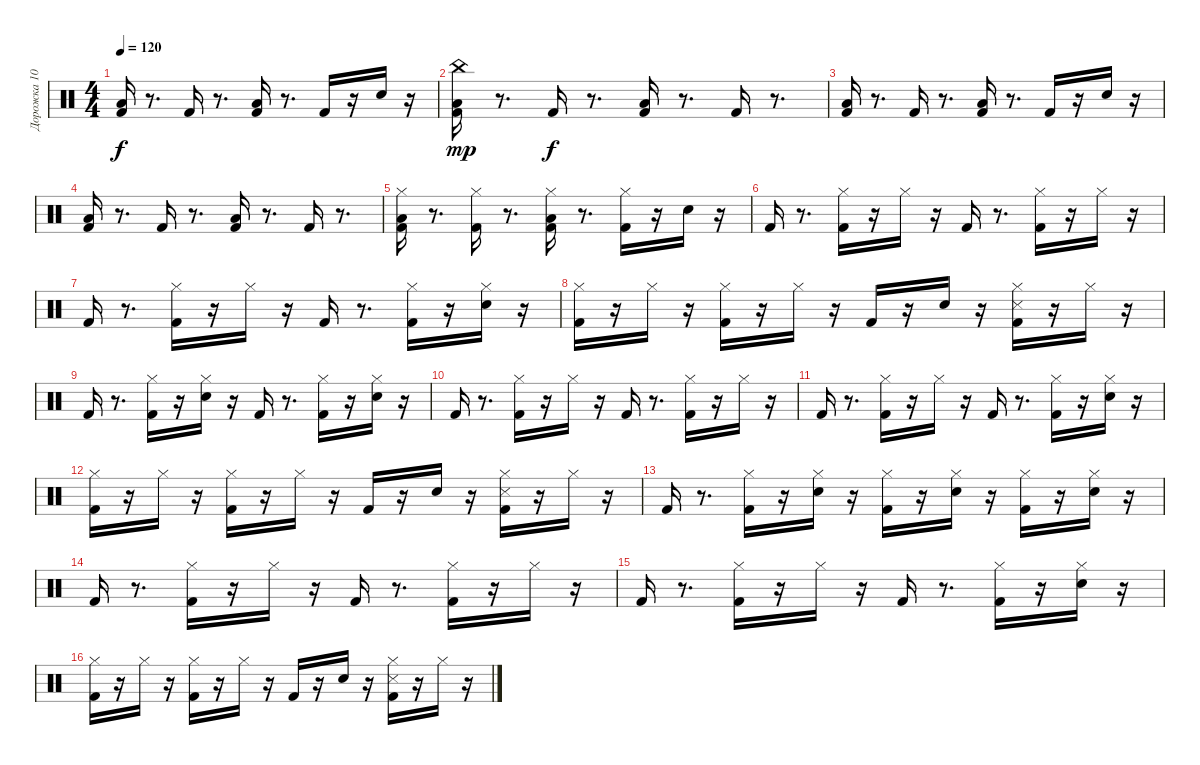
\track ("Дорожка 10" "Дорожка 10") {instrument percussion}
\staff {score}
\articulation defaults
\ts (4 4)
\tempo 120
\clef neutral
\ks c
("Kick (hit) 2" "Low Floor Tom (hit)").16{dy f} r.8{d} "Kick (hit) 2".16 r.8{d} ("Kick (hit) 2" "Low Floor Tom (hit)").16 r.8{d} "Kick (hit) 2".16 r.16 "Snare (hit) 2".16 r.16 |
("Kick (hit) 2" "Low Floor Tom (hit)" "China (hit)").16{dy mp} r.8{d} "Kick (hit) 2".16{dy f} r.8{d} ("Kick (hit) 2" "Low Floor Tom (hit)").16 r.8{d} "Kick (hit) 2".16 r.8{d} |
("Kick (hit) 2" "Low Floor Tom (hit)").16 r.8{d} "Kick (hit) 2".16 r.8{d} ("Kick (hit) 2" "Low Floor Tom (hit)").16 r.8{d} "Kick (hit) 2".16 r.16 "Snare (hit) 2".16 r.16 |
("Kick (hit) 2" "Low Floor Tom (hit)").16 r.8{d} "Kick (hit) 2".16 r.8{d} ("Kick (hit) 2" "Low Floor Tom (hit)").16 r.8{d} "Kick (hit) 2".16 r.8{d} |
("Kick (hit) 2" "Low Floor Tom (hit)" "Hi-Hat (closed)").16 r.8{d} ("Kick (hit) 2" "Hi-Hat (closed)").16 r.8{d} ("Kick (hit) 2" "Low Floor Tom (hit)" "Hi-Hat (closed)").16 r.8{d} ("Kick (hit) 2" "Hi-Hat (closed)").16 r.16 "Snare (hit) 2".16 r.16 |
"Kick (hit) 2".16 r.8{d} ("Kick (hit) 2" "Hi-Hat (closed)").16 r.16 "Hi-Hat (closed)".16 r.16 "Kick (hit) 2".16 r.8{d} ("Kick (hit) 2" "Hi-Hat (closed)").16 r.16 "Hi-Hat (closed)".16 r.16 |
"Kick (hit) 2".16 r.8{d} ("Kick (hit) 2" "Hi-Hat (closed)").16 r.16 "Hi-Hat (closed)".16 r.16 "Kick (hit) 2".16 r.8{d} ("Kick (hit) 2" "Hi-Hat (closed)").16 r.16 ("Snare (hit) 2" "Hi-Hat (closed)").16 r.16 |
("Kick (hit) 2" "Hi-Hat (closed)").16 r.16 "Hi-Hat (closed)".16 r.16 ("Kick (hit) 2" "Hi-Hat (closed)").16 r.16 "Hi-Hat (closed)".16 r.16 "Kick (hit) 2".16 r.16 "Hand Clap (hit)".16 r.16 ("Kick (hit) 2" "Snare (side stick) 3" "Hi-Hat (closed)").16 r.16 "Hi-Hat (closed)".16 r.16 |
"Kick (hit) 2".16 r.8{d} ("Kick (hit) 2" "Hi-Hat (closed)").16 r.16 ("Hand Clap (hit)" "Hi-Hat (closed)").16 r.16 "Kick (hit) 2".16 r.8{d} ("Kick (hit) 2" "Hi-Hat (closed)").16 r.16 ("Snare (hit) 2" "Hi-Hat (closed)").16 r.16 |
"Kick (hit) 2".16 r.8{d} ("Kick (hit) 2" "Hi-Hat (closed)").16 r.16 "Hi-Hat (closed)".16 r.16 "Kick (hit) 2".16 r.8{d} ("Kick (hit) 2" "Hi-Hat (closed)").16 r.16 "Hi-Hat (closed)".16 r.16 |
"Kick (hit) 2".16 r.8{d} ("Kick (hit) 2" "Hi-Hat (closed)").16 r.16 "Hi-Hat (closed)".16 r.16 "Kick (hit) 2".16 r.8{d} ("Kick (hit) 2" "Hi-Hat (closed)").16 r.16 ("Snare (hit) 2" "Hi-Hat (closed)").16 r.16 |
("Kick (hit) 2" "Hi-Hat (closed)").16 r.16 "Hi-Hat (closed)".16 r.16 ("Kick (hit) 2" "Hi-Hat (closed)").16 r.16 "Hi-Hat (closed)".16 r.16 "Kick (hit) 2".16 r.16 "Hand Clap (hit)".16 r.16 ("Kick (hit) 2" "Snare (side stick) 3" "Hi-Hat (closed)").16 r.16 "Hi-Hat (closed)".16 r.16 |
"Kick (hit) 2".16 r.8{d} ("Kick (hit) 2" "Hi-Hat (closed)").16 r.16 ("Hand Clap (hit)" "Hi-Hat (closed)").16 r.16 ("Kick (hit) 2" "Hi-Hat (closed)").16 r.16 ("Hand Clap (hit)" "Hi-Hat (closed)").16 r.16 ("Kick (hit) 2" "Hi-Hat (closed)").16 r.16 ("Snare (hit) 2" "Hi-Hat (closed)").16 r.16 |
"Kick (hit) 2".16 r.8{d} ("Kick (hit) 2" "Hi-Hat (closed)").16 r.16 "Hi-Hat (closed)".16 r.16 "Kick (hit) 2".16 r.8{d} ("Kick (hit) 2" "Hi-Hat (closed)").16 r.16 "Hi-Hat (closed)".16 r.16 |
"Kick (hit) 2".16 r.8{d} ("Kick (hit) 2" "Hi-Hat (closed)").16 r.16 "Hi-Hat (closed)".16 r.16 "Kick (hit) 2".16 r.8{d} ("Kick (hit) 2" "Hi-Hat (closed)").16 r.16 ("Snare (hit) 2" "Hi-Hat (closed)").16 r.16 |
("Kick (hit) 2" "Hi-Hat (closed)").16 r.16 "Hi-Hat (closed)".16 r.16 ("Kick (hit) 2" "Hi-Hat (closed)").16 r.16 "Hi-Hat (closed)".16 r.16 "Kick (hit) 2".16 r.16 "Hand Clap (hit)".16 r.16 ("Kick (hit) 2" "Snare (side stick) 3" "Hi-Hat (closed)").16 r.16 "Hi-Hat (closed)".16 r.16
